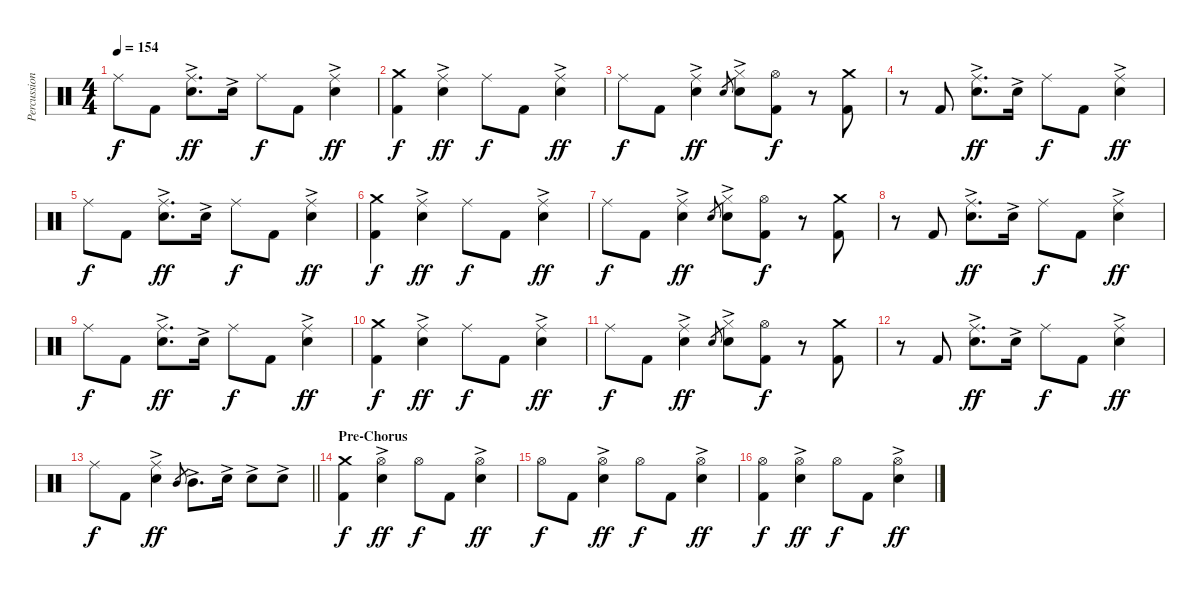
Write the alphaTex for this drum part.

\track ("Percussion" "Percussion") {instrument percussion}
\staff {score}
\articulation defaults
\ts (4 4)
\tempo 154
\clef neutral
\ks c "Ride (middle)".8{dy f} "Kick (hit) 2".8
("Ride (middle)" "Electric Snare (hit)"{ac}).8{d dy ff} "Electric Snare (hit)"{ac}.16 "Ride (middle)".8{dy f} "Kick (hit) 2".8 ("Ride (middle)" "Electric Snare (hit)"{ac}).4{dy ff} |
("Crash medium (hit)" "Kick (hit) 2").4{dy f} ("Ride (middle)" "Electric Snare (hit)"{ac}).4{dy ff} "Ride (middle)".8{dy f} "Kick (hit) 2".8 ("Ride (middle)" "Electric Snare (hit)"{ac}).4{dy ff} |
"Ride (middle)".8{dy f} "Kick (hit) 2".8 ("Ride (middle)" "Electric Snare (hit)"{ac}).4{dy ff} "Electric Snare (hit)".8{gr} ("Hi-Hat (closed)" "Electric Snare (hit)"{ac}).8 ("Hi-Hat (open)" "Kick (hit) 2").8{dy f} r.8 ("Crash medium (hit)" "Kick (hit) 2").8 |
r.8 "Kick (hit) 2".8 ("Ride (middle)" "Electric Snare (hit)"{ac}).8{d dy ff} "Electric Snare (hit)"{ac}.16 "Ride (middle)".8{dy f} "Kick (hit) 2".8 ("Ride (middle)" "Electric Snare (hit)"{ac}).4{dy ff} |
"Ride (middle)".8{dy f} "Kick (hit) 2".8 ("Ride (middle)" "Electric Snare (hit)"{ac}).8{d dy ff} "Electric Snare (hit)"{ac}.16 "Ride (middle)".8{dy f} "Kick (hit) 2".8 ("Ride (middle)" "Electric Snare (hit)"{ac}).4{dy ff} |
("Crash medium (hit)" "Kick (hit) 2").4{dy f} ("Ride (middle)" "Electric Snare (hit)"{ac}).4{dy ff} "Ride (middle)".8{dy f} "Kick (hit) 2".8 ("Ride (middle)" "Electric Snare (hit)"{ac}).4{dy ff} |
"Ride (middle)".8{dy f} "Kick (hit) 2".8 ("Ride (middle)" "Electric Snare (hit)"{ac}).4{dy ff} "Electric Snare (hit)".8{gr} ("Hi-Hat (closed)" "Electric Snare (hit)"{ac}).8 ("Hi-Hat (open)" "Kick (hit) 2").8{dy f} r.8 ("Crash medium (hit)" "Kick (hit) 2").8 |
r.8 "Kick (hit) 2".8 ("Ride (middle)" "Electric Snare (hit)"{ac}).8{d dy ff} "Electric Snare (hit)"{ac}.16 "Ride (middle)".8{dy f} "Kick (hit) 2".8 ("Ride (middle)" "Electric Snare (hit)"{ac}).4{dy ff} |
"Ride (middle)".8{dy f} "Kick (hit) 2".8 ("Ride (middle)" "Electric Snare (hit)"{ac}).8{d dy ff} "Electric Snare (hit)"{ac}.16 "Ride (middle)".8{dy f} "Kick (hit) 2".8 ("Ride (middle)" "Electric Snare (hit)"{ac}).4{dy ff} |
("Crash medium (hit)" "Kick (hit) 2").4{dy f} ("Ride (middle)" "Electric Snare (hit)"{ac}).4{dy ff} "Ride (middle)".8{dy f} "Kick (hit) 2".8 ("Ride (middle)" "Electric Snare (hit)"{ac}).4{dy ff} |
"Ride (middle)".8{dy f} "Kick (hit) 2".8 ("Ride (middle)" "Electric Snare (hit)"{ac}).4{dy ff} "Electric Snare (hit)".8{gr} ("Hi-Hat (closed)" "Electric Snare (hit)"{ac}).8 ("Hi-Hat (open)" "Kick (hit) 2").8{dy f} r.8 ("Crash medium (hit)" "Kick (hit) 2").8 |
r.8 "Kick (hit) 2".8 ("Ride (middle)" "Electric Snare (hit)"{ac}).8{d dy ff} "Electric Snare (hit)"{ac}.16 "Ride (middle)".8{dy f} "Kick (hit) 2".8 ("Ride (middle)" "Electric Snare (hit)"{ac}).4{dy ff} |
\barLineRight lightlight "Ride (middle)".8{dy f} "Kick (hit) 2".8
("Ride (middle)" "Electric Snare (hit)"{ac}).4{dy ff} "Mid Tom (hit)".8{gr} "Mid Tom (hit)"{ac}.8{d} "Electric Snare (hit)"{ac}.16 "Electric Snare (hit)"{ac}.8 "Electric Snare (hit)"{ac}.8 |
\section ("" "Pre-Chorus")
("Crash medium (hit)" "Kick (hit) 2").4{dy f} ("Hi-Hat (open)" "Electric Snare (hit)"{ac}).4{dy ff} "Hi-Hat (open)".8{dy f} "Kick (hit) 2".8 ("Hi-Hat (open)" "Electric Snare (hit)"{ac}).4{dy ff} |
"Hi-Hat (open)".8{dy f} "Kick (hit) 2".8 ("Hi-Hat (open)" "Electric Snare (hit)"{ac}).4{dy ff} "Hi-Hat (open)".8{dy f} "Kick (hit) 2".8 ("Hi-Hat (open)" "Electric Snare (hit)"{ac}).4{dy ff} |
("Hi-Hat (open)" "Kick (hit) 2").4{dy f} ("Hi-Hat (open)" "Electric Snare (hit)"{ac}).4{dy ff} "Hi-Hat (open)".8{dy f} "Kick (hit) 2".8 ("Hi-Hat (open)" "Electric Snare (hit)"{ac}).4{dy ff}
